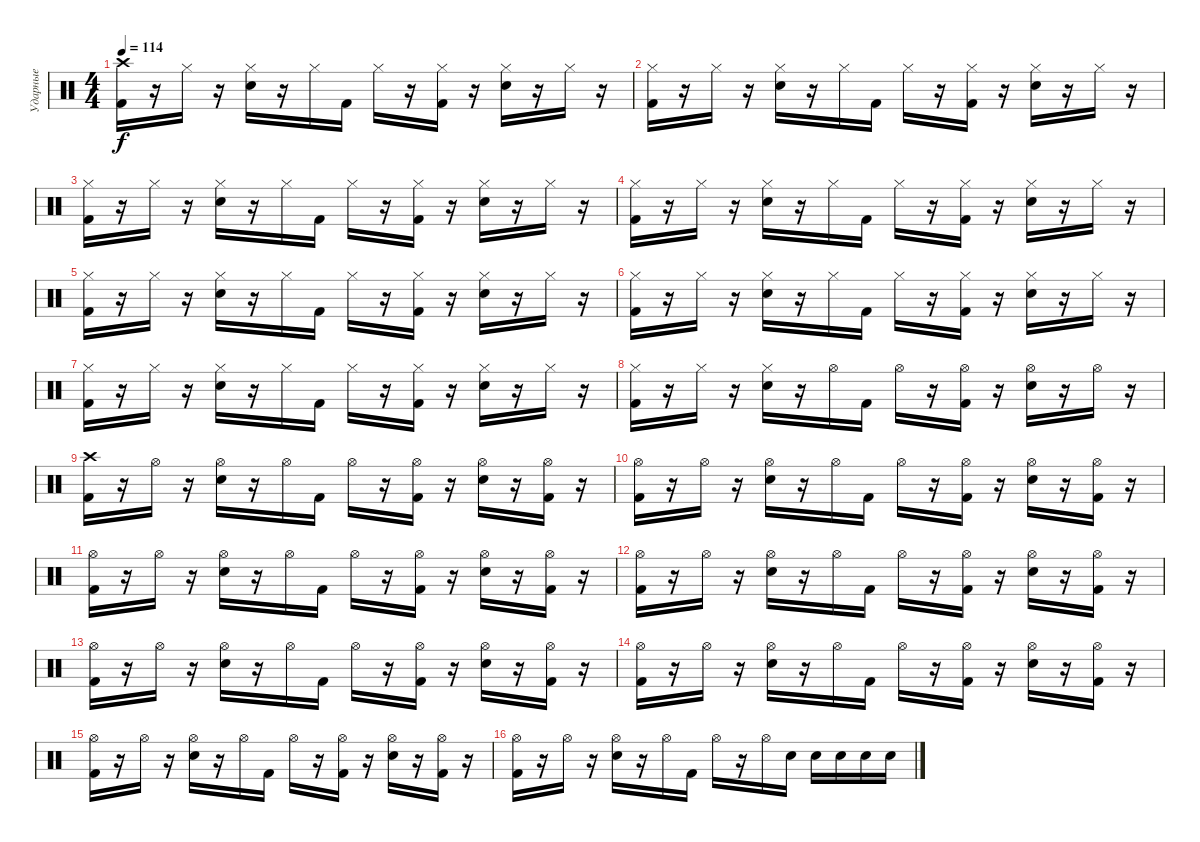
\track ("Ударные" "Ударные") {instrument percussion}
\staff {score}
\articulation defaults
\ts (4 4)
\tempo 114
\clef neutral
\ks c
("Kick (hit) 2" "Crash high (hit)").16{dy f} r.16 "Hi-Hat (closed)".16 r.16 ("Electric Snare (hit)" "Hi-Hat (closed)").16 r.16 "Hi-Hat (closed)".16 "Kick (hit) 2".16 "Hi-Hat (closed)".16 r.16 ("Kick (hit) 2" "Hi-Hat (closed)").16 r.16 ("Electric Snare (hit)" "Hi-Hat (closed)").16 r.16 "Hi-Hat (closed)".16 r.16 |
("Kick (hit) 2" "Hi-Hat (closed)").16 r.16 "Hi-Hat (closed)".16 r.16 ("Electric Snare (hit)" "Hi-Hat (closed)").16 r.16 "Hi-Hat (closed)".16 "Kick (hit) 2".16 "Hi-Hat (closed)".16 r.16 ("Kick (hit) 2" "Hi-Hat (closed)").16 r.16 ("Electric Snare (hit)" "Hi-Hat (closed)").16 r.16 "Hi-Hat (closed)".16 r.16 |
("Kick (hit) 2" "Hi-Hat (closed)").16 r.16 "Hi-Hat (closed)".16 r.16 ("Electric Snare (hit)" "Hi-Hat (closed)").16 r.16 "Hi-Hat (closed)".16 "Kick (hit) 2".16 "Hi-Hat (closed)".16 r.16 ("Kick (hit) 2" "Hi-Hat (closed)").16 r.16 ("Electric Snare (hit)" "Hi-Hat (closed)").16 r.16 "Hi-Hat (closed)".16 r.16 |
("Kick (hit) 2" "Hi-Hat (closed)").16 r.16 "Hi-Hat (closed)".16 r.16 ("Electric Snare (hit)" "Hi-Hat (closed)").16 r.16 "Hi-Hat (closed)".16 "Kick (hit) 2".16 "Hi-Hat (closed)".16 r.16 ("Kick (hit) 2" "Hi-Hat (closed)").16 r.16 ("Electric Snare (hit)" "Hi-Hat (closed)").16 r.16 "Hi-Hat (closed)".16 r.16 |
("Kick (hit) 2" "Hi-Hat (closed)").16 r.16 "Hi-Hat (closed)".16 r.16 ("Electric Snare (hit)" "Hi-Hat (closed)").16 r.16 "Hi-Hat (closed)".16 "Kick (hit) 2".16 "Hi-Hat (closed)".16 r.16 ("Kick (hit) 2" "Hi-Hat (closed)").16 r.16 ("Electric Snare (hit)" "Hi-Hat (closed)").16 r.16 "Hi-Hat (closed)".16 r.16 |
("Kick (hit) 2" "Hi-Hat (closed)").16 r.16 "Hi-Hat (closed)".16 r.16 ("Electric Snare (hit)" "Hi-Hat (closed)").16 r.16 "Hi-Hat (closed)".16 "Kick (hit) 2".16 "Hi-Hat (closed)".16 r.16 ("Kick (hit) 2" "Hi-Hat (closed)").16 r.16 ("Electric Snare (hit)" "Hi-Hat (closed)").16 r.16 "Hi-Hat (closed)".16 r.16 |
("Kick (hit) 2" "Hi-Hat (closed)").16 r.16 "Hi-Hat (closed)".16 r.16 ("Electric Snare (hit)" "Hi-Hat (closed)").16 r.16 "Hi-Hat (closed)".16 "Kick (hit) 2".16 "Hi-Hat (closed)".16 r.16 ("Kick (hit) 2" "Hi-Hat (closed)").16 r.16 ("Electric Snare (hit)" "Hi-Hat (closed)").16 r.16 "Hi-Hat (closed)".16 r.16 |
("Kick (hit) 2" "Hi-Hat (closed)").16 r.16 "Hi-Hat (closed)".16 r.16 ("Electric Snare (hit)" "Hi-Hat (closed)").16 r.16 "Hi-Hat (open)".16 "Kick (hit) 2".16 "Hi-Hat (open)".16 r.16 ("Kick (hit) 2" "Hi-Hat (open)").16 r.16 ("Electric Snare (hit)" "Hi-Hat (open)").16 r.16 "Hi-Hat (open)".16 r.16 |
("Kick (hit) 2" "Crash high (hit)").16 r.16 "Hi-Hat (open)".16 r.16 ("Electric Snare (hit)" "Hi-Hat (open)").16 r.16 "Hi-Hat (open)".16 "Kick (hit) 2".16 "Hi-Hat (open)".16 r.16 ("Kick (hit) 2" "Hi-Hat (open)").16 r.16 ("Electric Snare (hit)" "Hi-Hat (open)").16 r.16 ("Kick (hit) 2" "Hi-Hat (open)").16 r.16 |
("Kick (hit) 2" "Hi-Hat (open)").16 r.16 "Hi-Hat (open)".16 r.16 ("Electric Snare (hit)" "Hi-Hat (open)").16 r.16 "Hi-Hat (open)".16 "Kick (hit) 2".16 "Hi-Hat (open)".16 r.16 ("Kick (hit) 2" "Hi-Hat (open)").16 r.16 ("Electric Snare (hit)" "Hi-Hat (open)").16 r.16 ("Kick (hit) 2" "Hi-Hat (open)").16 r.16 |
("Kick (hit) 2" "Hi-Hat (open)").16 r.16 "Hi-Hat (open)".16 r.16 ("Electric Snare (hit)" "Hi-Hat (open)").16 r.16 "Hi-Hat (open)".16 "Kick (hit) 2".16 "Hi-Hat (open)".16 r.16 ("Kick (hit) 2" "Hi-Hat (open)").16 r.16 ("Electric Snare (hit)" "Hi-Hat (open)").16 r.16 ("Kick (hit) 2" "Hi-Hat (open)").16 r.16 |
("Kick (hit) 2" "Hi-Hat (open)").16 r.16 "Hi-Hat (open)".16 r.16 ("Electric Snare (hit)" "Hi-Hat (open)").16 r.16 "Hi-Hat (open)".16 "Kick (hit) 2".16 "Hi-Hat (open)".16 r.16 ("Kick (hit) 2" "Hi-Hat (open)").16 r.16 ("Electric Snare (hit)" "Hi-Hat (open)").16 r.16 ("Kick (hit) 2" "Hi-Hat (open)").16 r.16 |
("Kick (hit) 2" "Hi-Hat (open)").16 r.16 "Hi-Hat (open)".16 r.16 ("Electric Snare (hit)" "Hi-Hat (open)").16 r.16 "Hi-Hat (open)".16 "Kick (hit) 2".16 "Hi-Hat (open)".16 r.16 ("Kick (hit) 2" "Hi-Hat (open)").16 r.16 ("Electric Snare (hit)" "Hi-Hat (open)").16 r.16 ("Kick (hit) 2" "Hi-Hat (open)").16 r.16 |
("Kick (hit) 2" "Hi-Hat (open)").16 r.16 "Hi-Hat (open)".16 r.16 ("Electric Snare (hit)" "Hi-Hat (open)").16 r.16 "Hi-Hat (open)".16 "Kick (hit) 2".16 "Hi-Hat (open)".16 r.16 ("Kick (hit) 2" "Hi-Hat (open)").16 r.16 ("Electric Snare (hit)" "Hi-Hat (open)").16 r.16 ("Kick (hit) 2" "Hi-Hat (open)").16 r.16 |
("Kick (hit) 2" "Hi-Hat (open)").16 r.16 "Hi-Hat (open)".16 r.16 ("Electric Snare (hit)" "Hi-Hat (open)").16 r.16 "Hi-Hat (open)".16 "Kick (hit) 2".16 "Hi-Hat (open)".16 r.16 ("Kick (hit) 2" "Hi-Hat (open)").16 r.16 ("Electric Snare (hit)" "Hi-Hat (open)").16 r.16 ("Kick (hit) 2" "Hi-Hat (open)").16 r.16 |
("Kick (hit) 2" "Hi-Hat (open)").16 r.16 "Hi-Hat (open)".16 r.16 ("Electric Snare (hit)" "Hi-Hat (open)").16 r.16 "Hi-Hat (open)".16 "Kick (hit) 2".16 "Hi-Hat (open)".16 r.16 "Hi-Hat (open)".16 "Electric Snare (hit)".16 "Electric Snare (hit)".16 "Electric Snare (hit)".16 "Electric Snare (hit)".16 "Electric Snare (hit)".16
